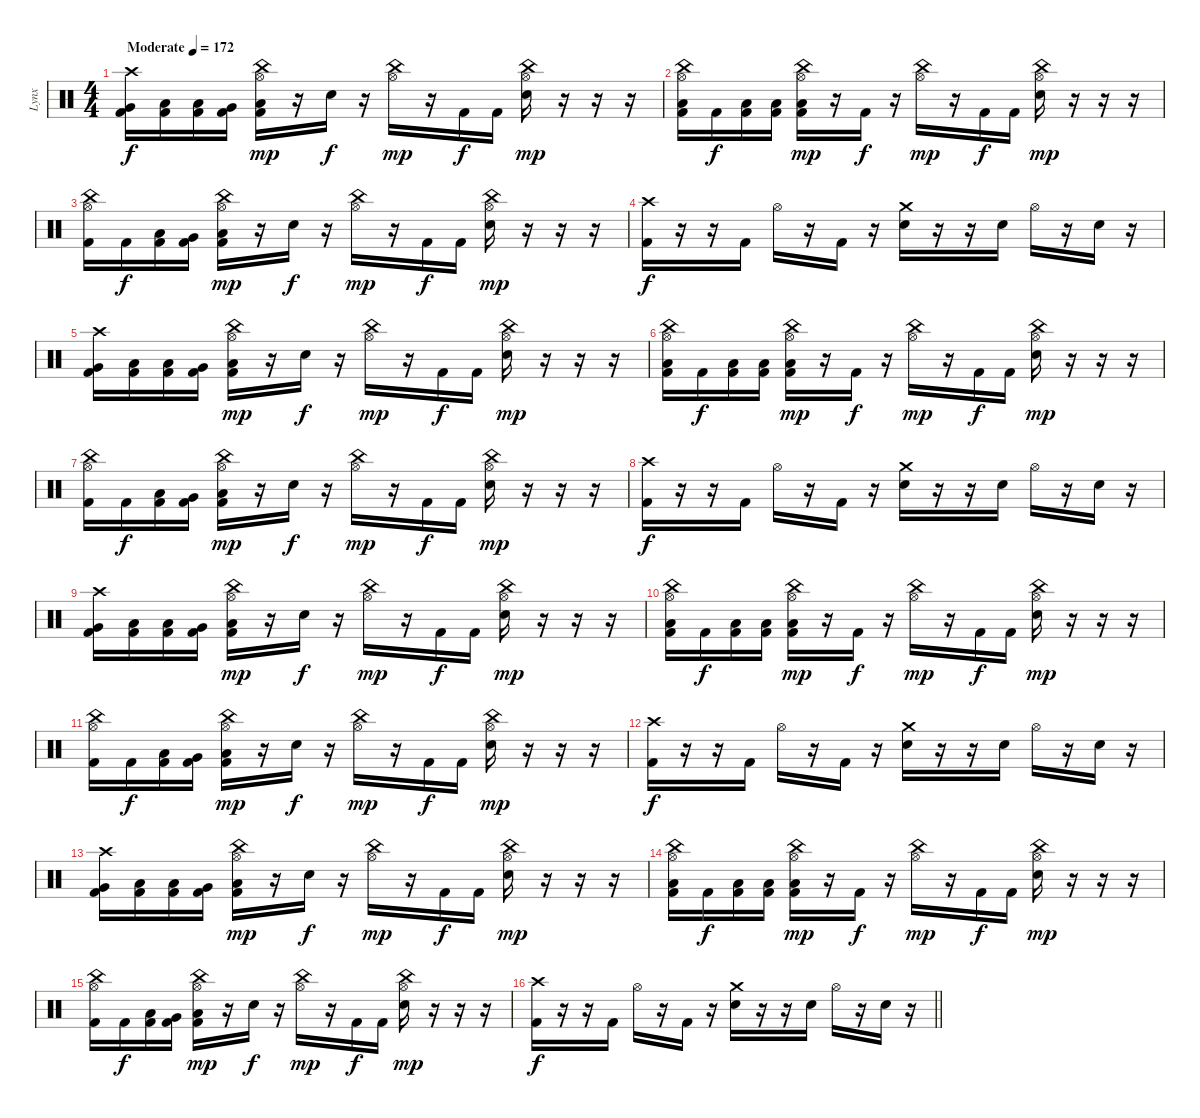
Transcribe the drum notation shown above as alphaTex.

\track ("Lynx" "Lynx") {instrument percussion}
\staff {score}
\articulation defaults
\ts (4 4)
\tempo (172 "Moderate")
\clef neutral
\ks c
("Crash high (hit)" "Very Low Tom (hit)" "Kick (hit) 2").16{dy f} ("Low Floor Tom (hit)" "Kick (hit) 2").16 ("Low Floor Tom (hit)" "Kick (hit) 2").16 ("Very Low Tom (hit)" "Kick (hit) 2").16 ("China (hit)" "Hi-Hat (open)" "Low Floor Tom (hit)" "Kick (hit) 2").16{dy mp} r.16 "Electric Snare (hit)".16{dy f} r.16 ("China (hit)" "Hi-Hat (open)").16{dy mp} r.16 "Kick (hit) 2".16{dy f} "Kick (hit) 2".16 ("China (hit)" "Hi-Hat (open)" "Electric Snare (hit)").16{dy mp} r.16 r.16 r.16 |
("China (hit)" "Hi-Hat (open)" "Low Floor Tom (hit)" "Kick (hit) 2").16 "Kick (hit) 2".16{dy f} ("Low Floor Tom (hit)" "Kick (hit) 2").16 ("Low Floor Tom (hit)" "Kick (hit) 2").16 ("China (hit)" "Hi-Hat (open)" "Low Floor Tom (hit)" "Kick (hit) 2").16{dy mp} r.16 "Kick (hit) 2".16{dy f} r.16 ("China (hit)" "Hi-Hat (open)").16{dy mp} r.16 "Kick (hit) 2".16{dy f} "Kick (hit) 2".16 ("China (hit)" "Hi-Hat (open)" "Electric Snare (hit)").16{dy mp} r.16 r.16 r.16 |
("China (hit)" "Hi-Hat (open)" "Kick (hit) 2").16 "Kick (hit) 2".16{dy f} ("Low Floor Tom (hit)" "Kick (hit) 2").16 ("Very Low Tom (hit)" "Kick (hit) 2").16 ("China (hit)" "Hi-Hat (open)" "Low Floor Tom (hit)" "Kick (hit) 2").16{dy mp} r.16 "Electric Snare (hit)".16{dy f} r.16 ("China (hit)" "Hi-Hat (open)").16{dy mp} r.16 "Kick (hit) 2".16{dy f} "Kick (hit) 2".16 ("China (hit)" "Hi-Hat (open)" "Electric Snare (hit)").16{dy mp} r.16 r.16 r.16 |
("Crash high (hit)" "Kick (hit) 2").16{dy f} r.16 r.16 "Kick (hit) 2".16 "Hi-Hat (open)".16 r.16 "Kick (hit) 2".16 r.16 ("Crash medium (hit)" "Electric Snare (hit)").16 r.16 r.16 "Electric Snare (hit)".16 "Hi-Hat (open)".16 r.16 "Electric Snare (hit)".16 r.16 |
("Crash high (hit)" "Very Low Tom (hit)" "Kick (hit) 2").16 ("Low Floor Tom (hit)" "Kick (hit) 2").16 ("Low Floor Tom (hit)" "Kick (hit) 2").16 ("Very Low Tom (hit)" "Kick (hit) 2").16 ("China (hit)" "Hi-Hat (open)" "Low Floor Tom (hit)" "Kick (hit) 2").16{dy mp} r.16 "Electric Snare (hit)".16{dy f} r.16 ("China (hit)" "Hi-Hat (open)").16{dy mp} r.16 "Kick (hit) 2".16{dy f} "Kick (hit) 2".16 ("China (hit)" "Hi-Hat (open)" "Electric Snare (hit)").16{dy mp} r.16 r.16 r.16 |
("China (hit)" "Hi-Hat (open)" "Low Floor Tom (hit)" "Kick (hit) 2").16 "Kick (hit) 2".16{dy f} ("Low Floor Tom (hit)" "Kick (hit) 2").16 ("Low Floor Tom (hit)" "Kick (hit) 2").16 ("China (hit)" "Hi-Hat (open)" "Low Floor Tom (hit)" "Kick (hit) 2").16{dy mp} r.16 "Kick (hit) 2".16{dy f} r.16 ("China (hit)" "Hi-Hat (open)").16{dy mp} r.16 "Kick (hit) 2".16{dy f} "Kick (hit) 2".16 ("China (hit)" "Hi-Hat (open)" "Electric Snare (hit)").16{dy mp} r.16 r.16 r.16 |
("China (hit)" "Hi-Hat (open)" "Kick (hit) 2").16 "Kick (hit) 2".16{dy f} ("Low Floor Tom (hit)" "Kick (hit) 2").16 ("Very Low Tom (hit)" "Kick (hit) 2").16 ("China (hit)" "Hi-Hat (open)" "Low Floor Tom (hit)" "Kick (hit) 2").16{dy mp} r.16 "Electric Snare (hit)".16{dy f} r.16 ("China (hit)" "Hi-Hat (open)").16{dy mp} r.16 "Kick (hit) 2".16{dy f} "Kick (hit) 2".16 ("China (hit)" "Hi-Hat (open)" "Electric Snare (hit)").16{dy mp} r.16 r.16 r.16 |
("Crash high (hit)" "Kick (hit) 2").16{dy f} r.16 r.16 "Kick (hit) 2".16 "Hi-Hat (open)".16 r.16 "Kick (hit) 2".16 r.16 ("Crash medium (hit)" "Electric Snare (hit)").16 r.16 r.16 "Electric Snare (hit)".16 "Hi-Hat (open)".16 r.16 "Electric Snare (hit)".16 r.16 |
("Crash high (hit)" "Very Low Tom (hit)" "Kick (hit) 2").16 ("Low Floor Tom (hit)" "Kick (hit) 2").16 ("Low Floor Tom (hit)" "Kick (hit) 2").16 ("Very Low Tom (hit)" "Kick (hit) 2").16 ("China (hit)" "Hi-Hat (open)" "Low Floor Tom (hit)" "Kick (hit) 2").16{dy mp} r.16 "Electric Snare (hit)".16{dy f} r.16 ("China (hit)" "Hi-Hat (open)").16{dy mp} r.16 "Kick (hit) 2".16{dy f} "Kick (hit) 2".16 ("China (hit)" "Hi-Hat (open)" "Electric Snare (hit)").16{dy mp} r.16 r.16 r.16 |
("China (hit)" "Hi-Hat (open)" "Low Floor Tom (hit)" "Kick (hit) 2").16 "Kick (hit) 2".16{dy f} ("Low Floor Tom (hit)" "Kick (hit) 2").16 ("Low Floor Tom (hit)" "Kick (hit) 2").16 ("China (hit)" "Hi-Hat (open)" "Low Floor Tom (hit)" "Kick (hit) 2").16{dy mp} r.16 "Kick (hit) 2".16{dy f} r.16 ("China (hit)" "Hi-Hat (open)").16{dy mp} r.16 "Kick (hit) 2".16{dy f} "Kick (hit) 2".16 ("China (hit)" "Hi-Hat (open)" "Electric Snare (hit)").16{dy mp} r.16 r.16 r.16 |
("China (hit)" "Hi-Hat (open)" "Kick (hit) 2").16 "Kick (hit) 2".16{dy f} ("Low Floor Tom (hit)" "Kick (hit) 2").16 ("Very Low Tom (hit)" "Kick (hit) 2").16 ("China (hit)" "Hi-Hat (open)" "Low Floor Tom (hit)" "Kick (hit) 2").16{dy mp} r.16 "Electric Snare (hit)".16{dy f} r.16 ("China (hit)" "Hi-Hat (open)").16{dy mp} r.16 "Kick (hit) 2".16{dy f} "Kick (hit) 2".16 ("China (hit)" "Hi-Hat (open)" "Electric Snare (hit)").16{dy mp} r.16 r.16 r.16 |
("Crash high (hit)" "Kick (hit) 2").16{dy f} r.16 r.16 "Kick (hit) 2".16 "Hi-Hat (open)".16 r.16 "Kick (hit) 2".16 r.16 ("Crash medium (hit)" "Electric Snare (hit)").16 r.16 r.16 "Electric Snare (hit)".16 "Hi-Hat (open)".16 r.16 "Electric Snare (hit)".16 r.16 |
("Crash high (hit)" "Very Low Tom (hit)" "Kick (hit) 2").16 ("Low Floor Tom (hit)" "Kick (hit) 2").16 ("Low Floor Tom (hit)" "Kick (hit) 2").16 ("Very Low Tom (hit)" "Kick (hit) 2").16 ("China (hit)" "Hi-Hat (open)" "Low Floor Tom (hit)" "Kick (hit) 2").16{dy mp} r.16 "Electric Snare (hit)".16{dy f} r.16 ("China (hit)" "Hi-Hat (open)").16{dy mp} r.16 "Kick (hit) 2".16{dy f} "Kick (hit) 2".16 ("China (hit)" "Hi-Hat (open)" "Electric Snare (hit)").16{dy mp} r.16 r.16 r.16 |
("China (hit)" "Hi-Hat (open)" "Low Floor Tom (hit)" "Kick (hit) 2").16 "Kick (hit) 2".16{dy f} ("Low Floor Tom (hit)" "Kick (hit) 2").16 ("Low Floor Tom (hit)" "Kick (hit) 2").16 ("China (hit)" "Hi-Hat (open)" "Low Floor Tom (hit)" "Kick (hit) 2").16{dy mp} r.16 "Kick (hit) 2".16{dy f} r.16 ("China (hit)" "Hi-Hat (open)").16{dy mp} r.16 "Kick (hit) 2".16{dy f} "Kick (hit) 2".16 ("China (hit)" "Hi-Hat (open)" "Electric Snare (hit)").16{dy mp} r.16 r.16 r.16 |
("China (hit)" "Hi-Hat (open)" "Kick (hit) 2").16 "Kick (hit) 2".16{dy f} ("Low Floor Tom (hit)" "Kick (hit) 2").16 ("Very Low Tom (hit)" "Kick (hit) 2").16 ("China (hit)" "Hi-Hat (open)" "Low Floor Tom (hit)" "Kick (hit) 2").16{dy mp} r.16 "Electric Snare (hit)".16{dy f} r.16 ("China (hit)" "Hi-Hat (open)").16{dy mp} r.16 "Kick (hit) 2".16{dy f} "Kick (hit) 2".16 ("China (hit)" "Hi-Hat (open)" "Electric Snare (hit)").16{dy mp} r.16 r.16 r.16 |
\barLineRight lightlight
("Crash high (hit)" "Kick (hit) 2").16{dy f} r.16 r.16 "Kick (hit) 2".16 "Hi-Hat (open)".16 r.16 "Kick (hit) 2".16 r.16 ("Crash medium (hit)" "Electric Snare (hit)").16 r.16 r.16 "Electric Snare (hit)".16 "Hi-Hat (open)".16 r.16 "Electric Snare (hit)".16 r.16
